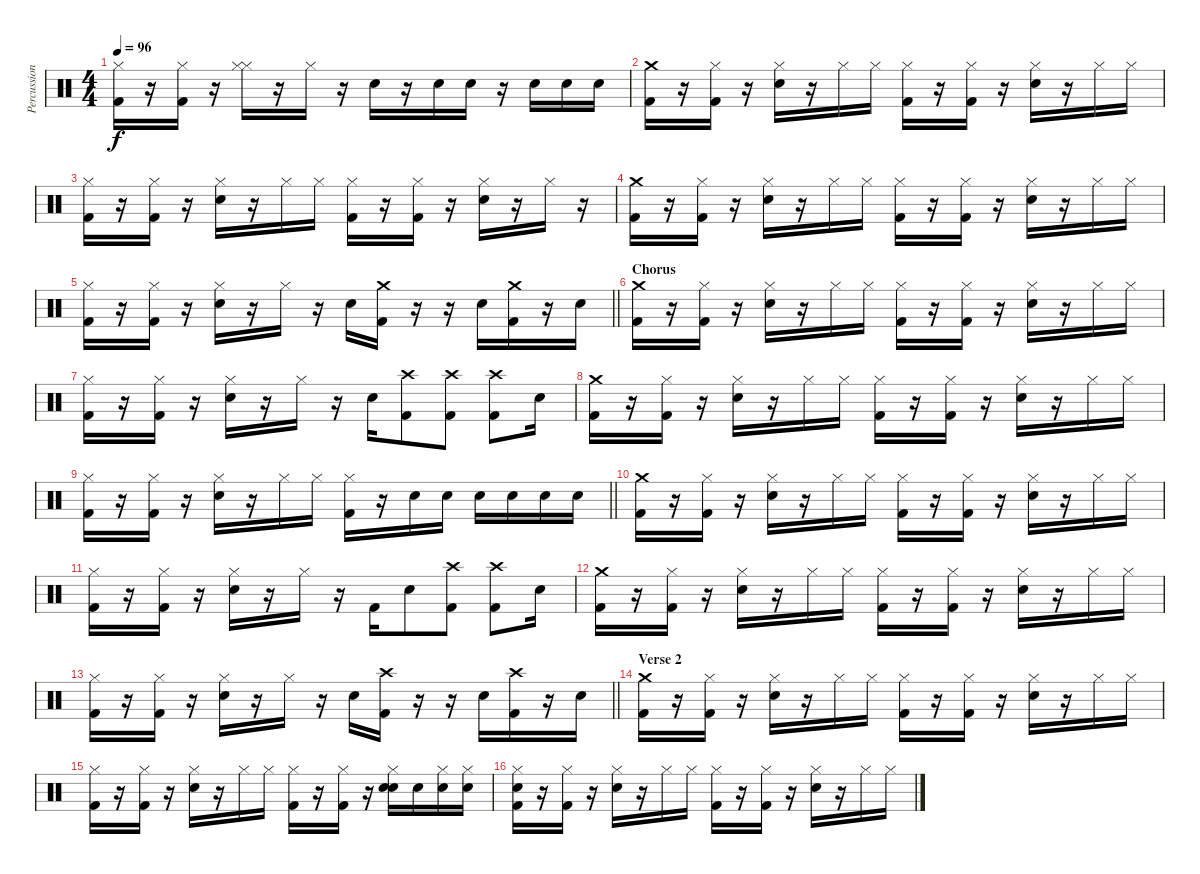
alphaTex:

\track ("Percussion" "Percussion") {instrument percussion}
\staff {score}
\articulation defaults
\ts (4 4)
\tempo 96
\clef neutral
\ks c
("Hi-Hat (closed)" "Kick (hit) 2").16{dy f} r.16 ("Hi-Hat (closed)" "Kick (hit) 2").16 r.16 ("Hi-Hat (closed)" "Hi-Hat (closed)").16 r.16 "Hi-Hat (closed)".16 r.16 "Snare (hit) 2".16 r.16 "Snare (hit) 2".16 "Snare (hit) 2".16 r.16 "Snare (hit) 2".16 "Snare (hit) 2".16 "Snare (hit) 2".16 |
("Crash medium (hit)" "Kick (hit) 2").16 r.16 ("Hi-Hat (closed)" "Kick (hit) 2").16 r.16 ("Hi-Hat (closed)" "Snare (hit) 2").16 r.16 "Hi-Hat (closed)".16 "Hi-Hat (closed)".16 ("Hi-Hat (closed)" "Kick (hit) 2").16 r.16 ("Hi-Hat (closed)" "Kick (hit) 2").16 r.16 ("Hi-Hat (closed)" "Snare (hit) 2").16 r.16 "Hi-Hat (closed)".16 "Hi-Hat (closed)".16 |
("Hi-Hat (closed)" "Kick (hit) 2").16 r.16 ("Hi-Hat (closed)" "Kick (hit) 2").16 r.16 ("Hi-Hat (closed)" "Snare (hit) 2").16 r.16 "Hi-Hat (closed)".16 "Hi-Hat (closed)".16 ("Hi-Hat (closed)" "Kick (hit) 2").16 r.16 ("Hi-Hat (closed)" "Kick (hit) 2").16 r.16 ("Hi-Hat (closed)" "Snare (hit) 2").16 r.16 "Hi-Hat (closed)".16 r.16 |
("Crash medium (hit)" "Kick (hit) 2").16 r.16 ("Hi-Hat (closed)" "Kick (hit) 2").16 r.16 ("Hi-Hat (closed)" "Snare (hit) 2").16 r.16 "Hi-Hat (closed)".16 "Hi-Hat (closed)".16 ("Hi-Hat (closed)" "Kick (hit) 2").16 r.16 ("Hi-Hat (closed)" "Kick (hit) 2").16 r.16 ("Hi-Hat (closed)" "Snare (hit) 2").16 r.16 "Hi-Hat (closed)".16 "Hi-Hat (closed)".16 |
\barLineRight lightlight
("Hi-Hat (closed)" "Kick (hit) 2").16 r.16 ("Hi-Hat (closed)" "Kick (hit) 2").16 r.16 ("Hi-Hat (closed)" "Snare (hit) 2").16 r.16 "Hi-Hat (closed)".16 r.16 "Snare (hit) 2".16 ("Crash medium (hit)" "Kick (hit) 2").16 r.16 r.16 "Snare (hit) 2".16 ("Crash medium (hit)" "Kick (hit) 2").16 r.16 "Snare (hit) 2".16 |
\section ("" "Chorus")
("Crash medium (hit)" "Kick (hit) 2").16 r.16 ("Hi-Hat (closed)" "Kick (hit) 2").16 r.16 ("Hi-Hat (closed)" "Snare (hit) 2").16 r.16 "Hi-Hat (closed)".16 "Hi-Hat (closed)".16 ("Hi-Hat (closed)" "Kick (hit) 2").16 r.16 ("Hi-Hat (closed)" "Kick (hit) 2").16 r.16 ("Hi-Hat (closed)" "Snare (hit) 2").16 r.16 "Hi-Hat (closed)".16 "Hi-Hat (closed)".16 |
("Hi-Hat (closed)" "Kick (hit) 2").16 r.16 ("Hi-Hat (closed)" "Kick (hit) 2").16 r.16 ("Hi-Hat (closed)" "Snare (hit) 2").16 r.16 "Hi-Hat (closed)".16 r.16 "Snare (hit) 2".16 ("Crash high (hit)" "Kick (hit) 2").8 ("Crash high (hit)" "Kick (hit) 2").8 ("Crash high (hit)" "Kick (hit) 2").8 "Snare (hit) 2".16 |
("Crash medium (hit)" "Kick (hit) 2").16 r.16 ("Hi-Hat (closed)" "Kick (hit) 2").16 r.16 ("Hi-Hat (closed)" "Snare (hit) 2").16 r.16 "Hi-Hat (closed)".16 "Hi-Hat (closed)".16 ("Hi-Hat (closed)" "Kick (hit) 2").16 r.16 ("Hi-Hat (closed)" "Kick (hit) 2").16 r.16 ("Hi-Hat (closed)" "Snare (hit) 2").16 r.16 "Hi-Hat (closed)".16 "Hi-Hat (closed)".16 |
\barLineRight lightlight
("Hi-Hat (closed)" "Kick (hit) 2").16 r.16 ("Hi-Hat (closed)" "Kick (hit) 2").16 r.16 ("Hi-Hat (closed)" "Snare (hit) 2").16 r.16 "Hi-Hat (closed)".16 "Hi-Hat (closed)".16 ("Hi-Hat (closed)" "Kick (hit) 2").16 r.16 "Snare (hit) 2".16 "Snare (hit) 2".16 "Snare (hit) 2".16 "Snare (hit) 2".16 "Snare (hit) 2".16 "Snare (hit) 2".16 |
("Crash medium (hit)" "Kick (hit) 2").16 r.16 ("Hi-Hat (closed)" "Kick (hit) 2").16 r.16 ("Hi-Hat (closed)" "Snare (hit) 2").16 r.16 "Hi-Hat (closed)".16 "Hi-Hat (closed)".16 ("Hi-Hat (closed)" "Kick (hit) 2").16 r.16 ("Hi-Hat (closed)" "Kick (hit) 2").16 r.16 ("Hi-Hat (closed)" "Snare (hit) 2").16 r.16 "Hi-Hat (closed)".16 "Hi-Hat (closed)".16 |
("Hi-Hat (closed)" "Kick (hit) 2").16 r.16 ("Hi-Hat (closed)" "Kick (hit) 2").16 r.16 ("Hi-Hat (closed)" "Snare (hit) 2").16 r.16 "Hi-Hat (closed)".16 r.16 "Kick (hit) 2".16 "Snare (hit) 2".8 ("Crash high (hit)" "Kick (hit) 2").8 ("Crash high (hit)" "Kick (hit) 2").8 "Snare (hit) 2".16 |
("Crash medium (hit)" "Kick (hit) 2").16 r.16 ("Hi-Hat (closed)" "Kick (hit) 2").16 r.16 ("Hi-Hat (closed)" "Snare (hit) 2").16 r.16 "Hi-Hat (closed)".16 "Hi-Hat (closed)".16 ("Hi-Hat (closed)" "Kick (hit) 2").16 r.16 ("Hi-Hat (closed)" "Kick (hit) 2").16 r.16 ("Hi-Hat (closed)" "Snare (hit) 2").16 r.16 "Hi-Hat (closed)".16 "Hi-Hat (closed)".16 |
\barLineRight lightlight
("Hi-Hat (closed)" "Kick (hit) 2").16 r.16 ("Hi-Hat (closed)" "Kick (hit) 2").16 r.16 ("Hi-Hat (closed)" "Snare (hit) 2").16 r.16 "Hi-Hat (closed)".16 r.16 "Snare (hit) 2".16 ("Crash high (hit)" "Kick (hit) 2").16 r.16 r.16 "Snare (hit) 2".16 ("Crash high (hit)" "Kick (hit) 2").16 r.16 "Snare (hit) 2".16 |
\section ("" "Verse 2")
("Crash medium (hit)" "Kick (hit) 2").16 r.16 ("Hi-Hat (closed)" "Kick (hit) 2").16 r.16 ("Hi-Hat (closed)" "Snare (hit) 2").16 r.16 "Hi-Hat (closed)".16 "Hi-Hat (closed)".16 ("Hi-Hat (closed)" "Kick (hit) 2").16 r.16 ("Hi-Hat (closed)" "Kick (hit) 2").16 r.16 ("Hi-Hat (closed)" "Snare (hit) 2").16 r.16 "Hi-Hat (closed)".16 "Hi-Hat (closed)".16 |
("Hi-Hat (closed)" "Kick (hit) 2").16 r.16 ("Hi-Hat (closed)" "Kick (hit) 2").16 r.16 ("Hi-Hat (closed)" "Snare (hit) 2").16 r.16 "Hi-Hat (closed)".16 "Hi-Hat (closed)".16 ("Hi-Hat (closed)" "Kick (hit) 2").16 r.16 ("Hi-Hat (closed)" "Kick (hit) 2").16 r.16 ("Hi-Hat (closed)" "Snare (hit) 2" "Hand Clap (hit)").16 "Hand Clap (hit)".16 ("Hi-Hat (closed)" "Hand Clap (hit)").16 ("Hi-Hat (closed)" "Hand Clap (hit)").16 |
("Hi-Hat (closed)" "Hand Clap (hit)" "Kick (hit) 2").16 r.16 ("Hi-Hat (closed)" "Kick (hit) 2").16 r.16 ("Hi-Hat (closed)" "Snare (hit) 2").16 r.16 "Hi-Hat (closed)".16 "Hi-Hat (closed)".16 ("Hi-Hat (closed)" "Kick (hit) 2").16 r.16 ("Hi-Hat (closed)" "Kick (hit) 2").16 r.16 ("Hi-Hat (closed)" "Snare (hit) 2").16 r.16 "Hi-Hat (closed)".16 "Hi-Hat (closed)".16
